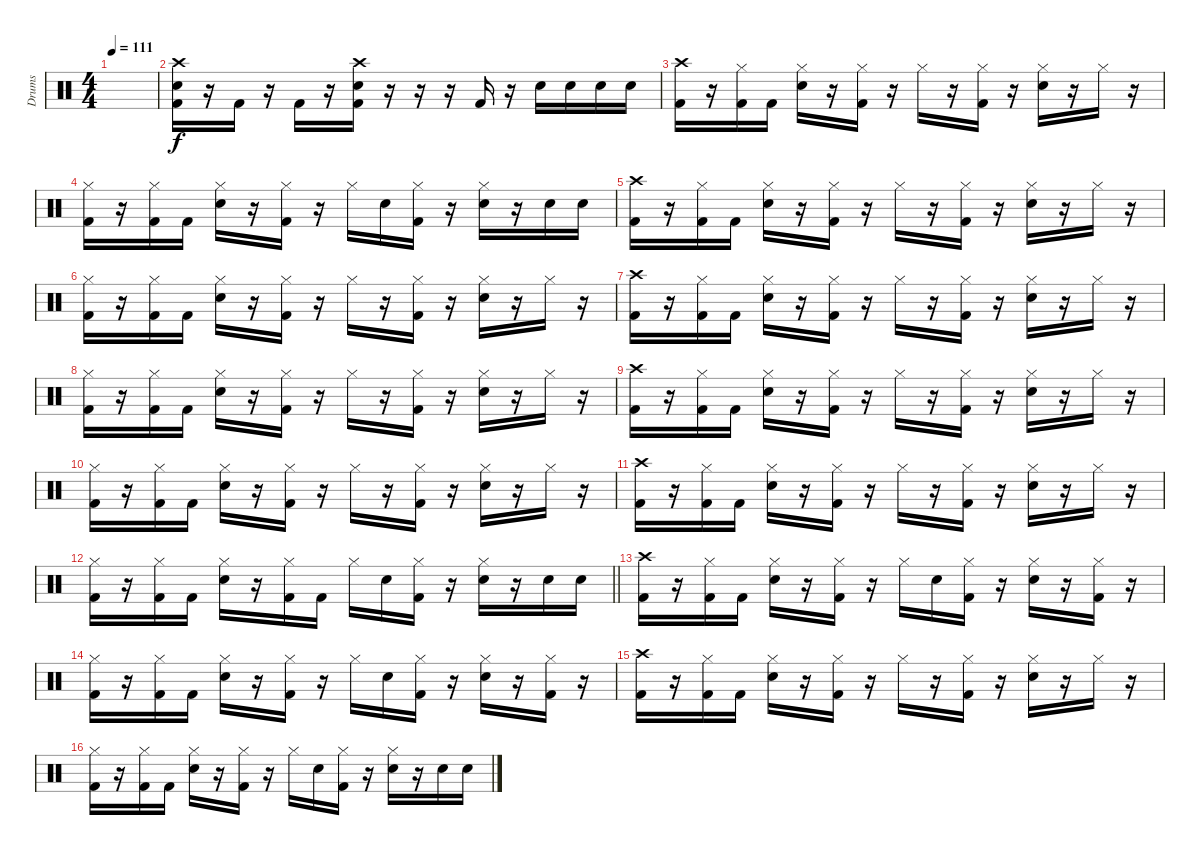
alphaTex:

\track ("Drums" "Drums") {instrument percussion}
\staff {score}
\articulation defaults
\ts (4 4)
\tempo 111
\clef neutral
\ks c
|
("Crash high (hit)" "Snare (hit) 2" "Kick (hit) 2").16 r.16 "Kick (hit) 2".16 r.16 "Kick (hit) 2".16 r.16 ("Crash high (hit)" "Snare (hit) 2" "Kick (hit) 2").16 r.16 r.16 r.16 "Kick (hit) 2".16 r.16 "Snare (hit) 2".16 "Snare (hit) 2".16 "Snare (hit) 2".16 "Snare (hit) 2".16 |
("Crash high (hit)" "Kick (hit) 2").16 r.16 ("Hi-Hat (closed)" "Kick (hit) 2").16 "Kick (hit) 2".16 ("Hi-Hat (closed)" "Snare (hit) 2").16 r.16 ("Hi-Hat (closed)" "Kick (hit) 2").16 r.16 "Hi-Hat (closed)".16 r.16 ("Hi-Hat (closed)" "Kick (hit) 2").16 r.16 ("Hi-Hat (closed)" "Snare (hit) 2").16 r.16 "Hi-Hat (closed)".16 r.16 |
("Hi-Hat (closed)" "Kick (hit) 2").16 r.16 ("Hi-Hat (closed)" "Kick (hit) 2").16 "Kick (hit) 2".16 ("Hi-Hat (closed)" "Snare (hit) 2").16 r.16 ("Hi-Hat (closed)" "Kick (hit) 2").16 r.16 "Hi-Hat (closed)".16 "Snare (hit) 2".16 ("Hi-Hat (closed)" "Kick (hit) 2").16 r.16 ("Hi-Hat (closed)" "Snare (hit) 2").16 r.16 "Snare (hit) 2".16 "Snare (hit) 2".16 |
("Crash high (hit)" "Kick (hit) 2").16 r.16 ("Hi-Hat (closed)" "Kick (hit) 2").16 "Kick (hit) 2".16 ("Hi-Hat (closed)" "Snare (hit) 2").16 r.16 ("Hi-Hat (closed)" "Kick (hit) 2").16 r.16 "Hi-Hat (closed)".16 r.16 ("Hi-Hat (closed)" "Kick (hit) 2").16 r.16 ("Hi-Hat (closed)" "Snare (hit) 2").16 r.16 "Hi-Hat (closed)".16 r.16 |
("Hi-Hat (closed)" "Kick (hit) 2").16 r.16 ("Hi-Hat (closed)" "Kick (hit) 2").16 "Kick (hit) 2".16 ("Hi-Hat (closed)" "Snare (hit) 2").16 r.16 ("Hi-Hat (closed)" "Kick (hit) 2").16 r.16 "Hi-Hat (closed)".16 r.16 ("Hi-Hat (closed)" "Kick (hit) 2").16 r.16 ("Hi-Hat (closed)" "Snare (hit) 2").16 r.16 "Hi-Hat (closed)".16 r.16 |
("Crash high (hit)" "Kick (hit) 2").16 r.16 ("Hi-Hat (closed)" "Kick (hit) 2").16 "Kick (hit) 2".16 ("Hi-Hat (closed)" "Snare (hit) 2").16 r.16 ("Hi-Hat (closed)" "Kick (hit) 2").16 r.16 "Hi-Hat (closed)".16 r.16 ("Hi-Hat (closed)" "Kick (hit) 2").16 r.16 ("Hi-Hat (closed)" "Snare (hit) 2").16 r.16 "Hi-Hat (closed)".16 r.16 |
("Hi-Hat (closed)" "Kick (hit) 2").16 r.16 ("Hi-Hat (closed)" "Kick (hit) 2").16 "Kick (hit) 2".16 ("Hi-Hat (closed)" "Snare (hit) 2").16 r.16 ("Hi-Hat (closed)" "Kick (hit) 2").16 r.16 "Hi-Hat (closed)".16 r.16 ("Hi-Hat (closed)" "Kick (hit) 2").16 r.16 ("Hi-Hat (closed)" "Snare (hit) 2").16 r.16 "Hi-Hat (closed)".16 r.16 |
("Crash high (hit)" "Kick (hit) 2").16 r.16 ("Hi-Hat (closed)" "Kick (hit) 2").16 "Kick (hit) 2".16 ("Hi-Hat (closed)" "Snare (hit) 2").16 r.16 ("Hi-Hat (closed)" "Kick (hit) 2").16 r.16 "Hi-Hat (closed)".16 r.16 ("Hi-Hat (closed)" "Kick (hit) 2").16 r.16 ("Hi-Hat (closed)" "Snare (hit) 2").16 r.16 "Hi-Hat (closed)".16 r.16 |
("Hi-Hat (closed)" "Kick (hit) 2").16 r.16 ("Hi-Hat (closed)" "Kick (hit) 2").16 "Kick (hit) 2".16 ("Hi-Hat (closed)" "Snare (hit) 2").16 r.16 ("Hi-Hat (closed)" "Kick (hit) 2").16 r.16 "Hi-Hat (closed)".16 r.16 ("Hi-Hat (closed)" "Kick (hit) 2").16 r.16 ("Hi-Hat (closed)" "Snare (hit) 2").16 r.16 "Hi-Hat (closed)".16 r.16 |
("Crash high (hit)" "Kick (hit) 2").16 r.16 ("Hi-Hat (closed)" "Kick (hit) 2").16 "Kick (hit) 2".16 ("Hi-Hat (closed)" "Snare (hit) 2").16 r.16 ("Hi-Hat (closed)" "Kick (hit) 2").16 r.16 "Hi-Hat (closed)".16 r.16 ("Hi-Hat (closed)" "Kick (hit) 2").16 r.16 ("Hi-Hat (closed)" "Snare (hit) 2").16 r.16 "Hi-Hat (closed)".16 r.16 |
\barLineRight lightlight
("Hi-Hat (closed)" "Kick (hit) 2").16 r.16 ("Hi-Hat (closed)" "Kick (hit) 2").16 "Kick (hit) 2".16 ("Hi-Hat (closed)" "Snare (hit) 2").16 r.16 ("Hi-Hat (closed)" "Kick (hit) 2").16 "Kick (hit) 2".16 "Hi-Hat (closed)".16 "Snare (hit) 2".16 ("Hi-Hat (closed)" "Kick (hit) 2").16 r.16 ("Hi-Hat (closed)" "Snare (hit) 2").16 r.16 "Snare (hit) 2".16 "Snare (hit) 2".16 |
("Crash high (hit)" "Kick (hit) 2").16 r.16 ("Hi-Hat (closed)" "Kick (hit) 2").16 "Kick (hit) 2".16 ("Hi-Hat (closed)" "Snare (hit) 2").16 r.16 ("Hi-Hat (closed)" "Kick (hit) 2").16 r.16 "Hi-Hat (closed)".16 "Snare (hit) 2".16 ("Hi-Hat (closed)" "Kick (hit) 2").16 r.16 ("Hi-Hat (closed)" "Snare (hit) 2").16 r.16 ("Hi-Hat (closed)" "Kick (hit) 2").16 r.16 |
("Hi-Hat (closed)" "Kick (hit) 2").16 r.16 ("Hi-Hat (closed)" "Kick (hit) 2").16 "Kick (hit) 2".16 ("Hi-Hat (closed)" "Snare (hit) 2").16 r.16 ("Hi-Hat (closed)" "Kick (hit) 2").16 r.16 "Hi-Hat (closed)".16 "Snare (hit) 2".16 ("Hi-Hat (closed)" "Kick (hit) 2").16 r.16 ("Hi-Hat (closed)" "Snare (hit) 2").16 r.16 ("Hi-Hat (closed)" "Kick (hit) 2").16 r.16 |
("Crash high (hit)" "Kick (hit) 2").16 r.16 ("Hi-Hat (closed)" "Kick (hit) 2").16 "Kick (hit) 2".16 ("Hi-Hat (closed)" "Snare (hit) 2").16 r.16 ("Hi-Hat (closed)" "Kick (hit) 2").16 r.16 "Hi-Hat (closed)".16 r.16 ("Hi-Hat (closed)" "Kick (hit) 2").16 r.16 ("Hi-Hat (closed)" "Snare (hit) 2").16 r.16 "Hi-Hat (closed)".16 r.16 |
("Hi-Hat (closed)" "Kick (hit) 2").16 r.16 ("Hi-Hat (closed)" "Kick (hit) 2").16 "Kick (hit) 2".16 ("Hi-Hat (closed)" "Snare (hit) 2").16 r.16 ("Hi-Hat (closed)" "Kick (hit) 2").16 r.16 "Hi-Hat (closed)".16 "Snare (hit) 2".16 ("Hi-Hat (closed)" "Kick (hit) 2").16 r.16 ("Hi-Hat (closed)" "Snare (hit) 2").16 r.16 "Snare (hit) 2".16 "Snare (hit) 2".16
